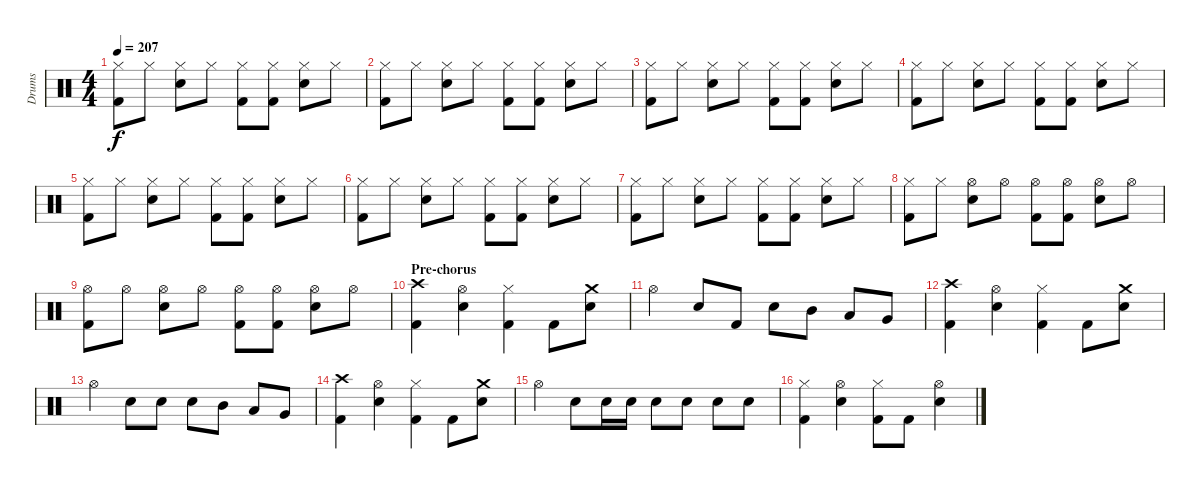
\track ("Drums" "Drums") {instrument percussion}
\staff {score}
\articulation defaults
\ts (4 4)
\tempo 207
\clef neutral
\ks c
("Hi-Hat (closed)" "Kick (hit) 2").8{dy f} "Hi-Hat (closed)".8 ("Hi-Hat (closed)" "Snare (hit) 2").8 "Hi-Hat (closed)".8 ("Hi-Hat (closed)" "Kick (hit) 2").8 ("Hi-Hat (closed)" "Kick (hit) 2").8 ("Hi-Hat (closed)" "Snare (hit) 2").8 "Hi-Hat (closed)".8 |
("Hi-Hat (closed)" "Kick (hit) 2").8 "Hi-Hat (closed)".8 ("Hi-Hat (closed)" "Snare (hit) 2").8 "Hi-Hat (closed)".8 ("Hi-Hat (closed)" "Kick (hit) 2").8 ("Hi-Hat (closed)" "Kick (hit) 2").8 ("Hi-Hat (closed)" "Snare (hit) 2").8 "Hi-Hat (closed)".8 |
("Hi-Hat (closed)" "Kick (hit) 2").8 "Hi-Hat (closed)".8 ("Hi-Hat (closed)" "Snare (hit) 2").8 "Hi-Hat (closed)".8 ("Hi-Hat (closed)" "Kick (hit) 2").8 ("Hi-Hat (closed)" "Kick (hit) 2").8 ("Hi-Hat (closed)" "Snare (hit) 2").8 "Hi-Hat (closed)".8 |
("Hi-Hat (closed)" "Kick (hit) 2").8 "Hi-Hat (closed)".8 ("Hi-Hat (closed)" "Snare (hit) 2").8 "Hi-Hat (closed)".8 ("Hi-Hat (closed)" "Kick (hit) 2").8 ("Hi-Hat (closed)" "Kick (hit) 2").8 ("Hi-Hat (closed)" "Snare (hit) 2").8 "Hi-Hat (closed)".8 |
("Hi-Hat (closed)" "Kick (hit) 2").8 "Hi-Hat (closed)".8 ("Hi-Hat (closed)" "Snare (hit) 2").8 "Hi-Hat (closed)".8 ("Hi-Hat (closed)" "Kick (hit) 2").8 ("Hi-Hat (closed)" "Kick (hit) 2").8 ("Hi-Hat (closed)" "Snare (hit) 2").8 "Hi-Hat (closed)".8 |
("Hi-Hat (closed)" "Kick (hit) 2").8 "Hi-Hat (closed)".8 ("Hi-Hat (closed)" "Snare (hit) 2").8 "Hi-Hat (closed)".8 ("Hi-Hat (closed)" "Kick (hit) 2").8 ("Hi-Hat (closed)" "Kick (hit) 2").8 ("Hi-Hat (closed)" "Snare (hit) 2").8 "Hi-Hat (closed)".8 |
("Hi-Hat (closed)" "Kick (hit) 2").8 "Hi-Hat (closed)".8 ("Hi-Hat (closed)" "Snare (hit) 2").8 "Hi-Hat (closed)".8 ("Hi-Hat (closed)" "Kick (hit) 2").8 ("Hi-Hat (closed)" "Kick (hit) 2").8 ("Hi-Hat (closed)" "Snare (hit) 2").8 "Hi-Hat (closed)".8 |
("Hi-Hat (closed)" "Kick (hit) 2").8 "Hi-Hat (closed)".8 ("Hi-Hat (open)" "Snare (hit) 2").8 "Hi-Hat (open)".8 ("Hi-Hat (open)" "Kick (hit) 2").8 ("Hi-Hat (open)" "Kick (hit) 2").8 ("Hi-Hat (open)" "Snare (hit) 2").8 "Hi-Hat (open)".8 |
("Hi-Hat (open)" "Kick (hit) 2").8 "Hi-Hat (open)".8 ("Hi-Hat (open)" "Snare (hit) 2").8 "Hi-Hat (open)".8 ("Hi-Hat (open)" "Kick (hit) 2").8 ("Hi-Hat (open)" "Kick (hit) 2").8 ("Hi-Hat (open)" "Snare (hit) 2").8 "Hi-Hat (open)".8 |
\section ("" "Pre-chorus")
("Crash high (hit)" "Kick (hit) 2").4 ("Hi-Hat (open)" "Snare (hit) 2").4 ("Hi-Hat (closed)" "Kick (hit) 2").4 "Kick (hit) 2".8 ("Crash medium (hit)" "Snare (hit) 2").8 |
"Hi-Hat (open)".4 "Snare (hit) 2".8 "Kick (hit) 2".8 "Snare (hit) 2".8 "Mid Tom (hit)".8 "Low Tom (hit)".8 "Very Low Tom (hit)".8 |
("Crash high (hit)" "Kick (hit) 2").4 ("Hi-Hat (open)" "Snare (hit) 2").4 ("Hi-Hat (closed)" "Kick (hit) 2").4 "Kick (hit) 2".8 ("Crash medium (hit)" "Snare (hit) 2").8 |
"Hi-Hat (open)".4 "Snare (hit) 2".8 "Snare (hit) 2".8 "Snare (hit) 2".8 "Mid Tom (hit)".8 "Low Tom (hit)".8 "Very Low Tom (hit)".8 |
("Crash high (hit)" "Kick (hit) 2").4 ("Hi-Hat (open)" "Snare (hit) 2").4 ("Hi-Hat (closed)" "Kick (hit) 2").4 "Kick (hit) 2".8 ("Crash medium (hit)" "Snare (hit) 2").8 |
"Hi-Hat (open)".4 "Snare (hit) 2".8 "Snare (hit) 2".16 "Snare (hit) 2".16 "Snare (hit) 2".8 "Snare (hit) 2".8 "Snare (hit) 2".8 "Snare (hit) 2".8 |
("Hi-Hat (closed)" "Kick (hit) 2").4 ("Hi-Hat (open)" "Snare (hit) 2").4 ("Hi-Hat (closed)" "Kick (hit) 2").8 "Kick (hit) 2".8 ("Hi-Hat (open)" "Snare (hit) 2").4
